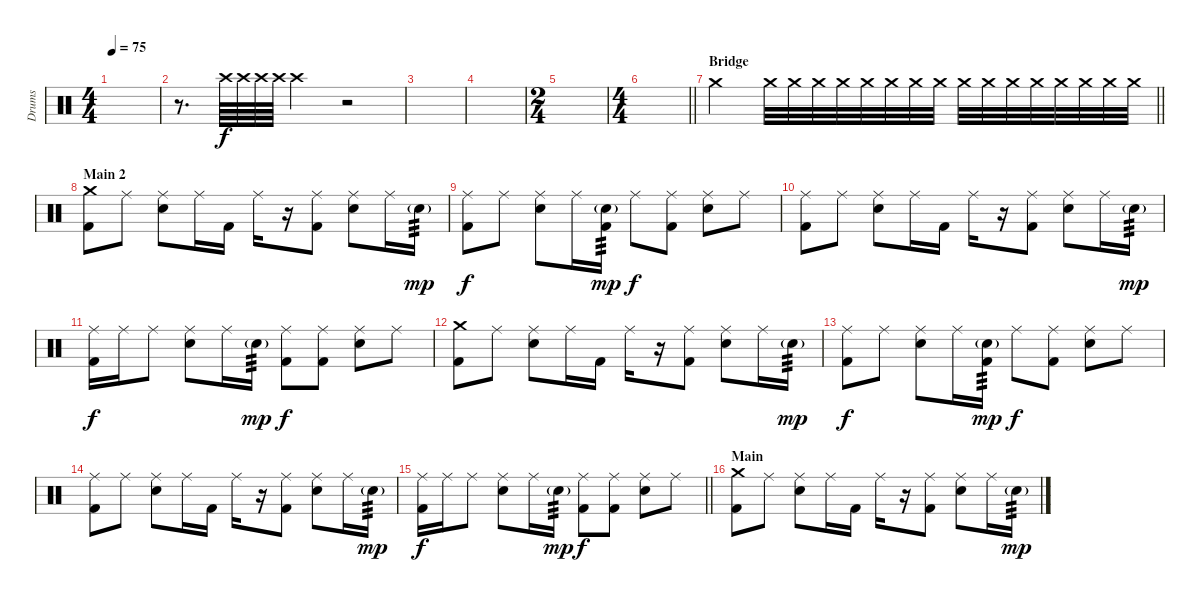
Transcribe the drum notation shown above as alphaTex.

\track ("Drums" "Drums") {instrument percussion}
\staff {score}
\articulation defaults
\ts (4 4)
\tempo 75
\clef neutral
\ks c
|
r.8{d volume 0} "Crash high (hit)".64{volume 13} "Crash high (hit)".64 "Crash high (hit)".64 "Crash high (hit)".64 "Crash high (hit)".4 r.2 |
|
|
\ts (2 4)
|
\ts (4 4)
\barLineRight lightlight
|
\section ("" "Bridge")
\barLineRight lightlight "Crash medium (hit)".2 "Crash medium (hit)".32{volume 0} "Crash medium (hit)".32{volume 13} "Crash medium (hit)".32 "Crash medium (hit)".32 "Crash medium (hit)".32 "Crash medium (hit)".32 "Crash medium (hit)".32 "Crash medium (hit)".32 "Crash medium (hit)".32 "Crash medium (hit)".32 "Crash medium (hit)".32 "Crash medium (hit)".32 "Crash medium (hit)".32 "Crash medium (hit)".32 "Crash medium (hit)".32 "Crash medium (hit)".32
|
\section ("" "Main 2")
("Crash medium (hit)" "Kick (hit) 2").8 "Ride (middle)".8 ("Ride (middle)" "Electric Snare (hit)").8 "Ride (middle)".16 "Kick (hit) 2".16 "Ride (middle)".16 r.16 ("Ride (middle)" "Kick (hit) 2").8 ("Ride (middle)" "Electric Snare (hit)").8 "Ride (middle)".16 "Electric Snare (hit)"{g}.16{tp 3 dy mp} |
("Ride (middle)" "Kick (hit) 2").8{dy f} "Ride (middle)".8 ("Ride (middle)" "Electric Snare (hit)").8 "Ride (middle)".16 ("Electric Snare (hit)"{g} "Kick (hit) 2").16{tp 3 dy mp} "Ride (middle)".8{dy f} ("Ride (middle)" "Kick (hit) 2").8 ("Ride (middle)" "Electric Snare (hit)").8 "Ride (middle)".8 |
("Ride (middle)" "Kick (hit) 2").8 "Ride (middle)".8 ("Ride (middle)" "Electric Snare (hit)").8 "Ride (middle)".16 "Kick (hit) 2".16 "Ride (middle)".16 r.16 ("Ride (middle)" "Kick (hit) 2").8 ("Ride (middle)" "Electric Snare (hit)").8 "Ride (middle)".16 "Electric Snare (hit)"{g}.16{tp 3 dy mp} |
("Ride (middle)" "Kick (hit) 2").16{dy f} "Ride (middle)".16 "Ride (middle)".8 ("Ride (middle)" "Electric Snare (hit)").8 "Ride (middle)".16 "Electric Snare (hit)"{g}.16{tp 3 dy mp} ("Ride (middle)" "Kick (hit) 2").8{dy f} ("Ride (middle)" "Kick (hit) 2").8 ("Ride (middle)" "Electric Snare (hit)").8 "Ride (middle)".8 |
("Crash medium (hit)" "Kick (hit) 2").8 "Ride (middle)".8 ("Ride (middle)" "Electric Snare (hit)").8 "Ride (middle)".16 "Kick (hit) 2".16 "Ride (middle)".16 r.16 ("Ride (middle)" "Kick (hit) 2").8 ("Ride (middle)" "Electric Snare (hit)").8 "Ride (middle)".16 "Electric Snare (hit)"{g}.16{tp 3 dy mp} |
("Ride (middle)" "Kick (hit) 2").8{dy f} "Ride (middle)".8 ("Ride (middle)" "Electric Snare (hit)").8 "Ride (middle)".16 ("Electric Snare (hit)"{g} "Kick (hit) 2").16{tp 3 dy mp} "Ride (middle)".8{dy f} ("Ride (middle)" "Kick (hit) 2").8 ("Ride (middle)" "Electric Snare (hit)").8 "Ride (middle)".8 |
("Ride (middle)" "Kick (hit) 2").8 "Ride (middle)".8 ("Ride (middle)" "Electric Snare (hit)").8 "Ride (middle)".16 "Kick (hit) 2".16 "Ride (middle)".16 r.16 ("Ride (middle)" "Kick (hit) 2").8 ("Ride (middle)" "Electric Snare (hit)").8 "Ride (middle)".16 "Electric Snare (hit)"{g}.16{tp 3 dy mp} |
\barLineRight lightlight
("Ride (middle)" "Kick (hit) 2").16{dy f} "Ride (middle)".16 "Ride (middle)".8 ("Ride (middle)" "Electric Snare (hit)").8 "Ride (middle)".16 "Electric Snare (hit)"{g}.16{tp 3 dy mp} ("Ride (middle)" "Kick (hit) 2").8{dy f} ("Ride (middle)" "Kick (hit) 2").8 ("Ride (middle)" "Electric Snare (hit)").8 "Ride (middle)".8 |
\section ("" "Main")
("Crash medium (hit)" "Kick (hit) 2").8 "Ride (middle)".8 ("Ride (middle)" "Electric Snare (hit)").8 "Ride (middle)".16 "Kick (hit) 2".16 "Ride (middle)".16 r.16 ("Ride (middle)" "Kick (hit) 2").8 ("Ride (middle)" "Electric Snare (hit)").8 "Ride (middle)".16 "Electric Snare (hit)"{g}.16{tp 3 dy mp}
